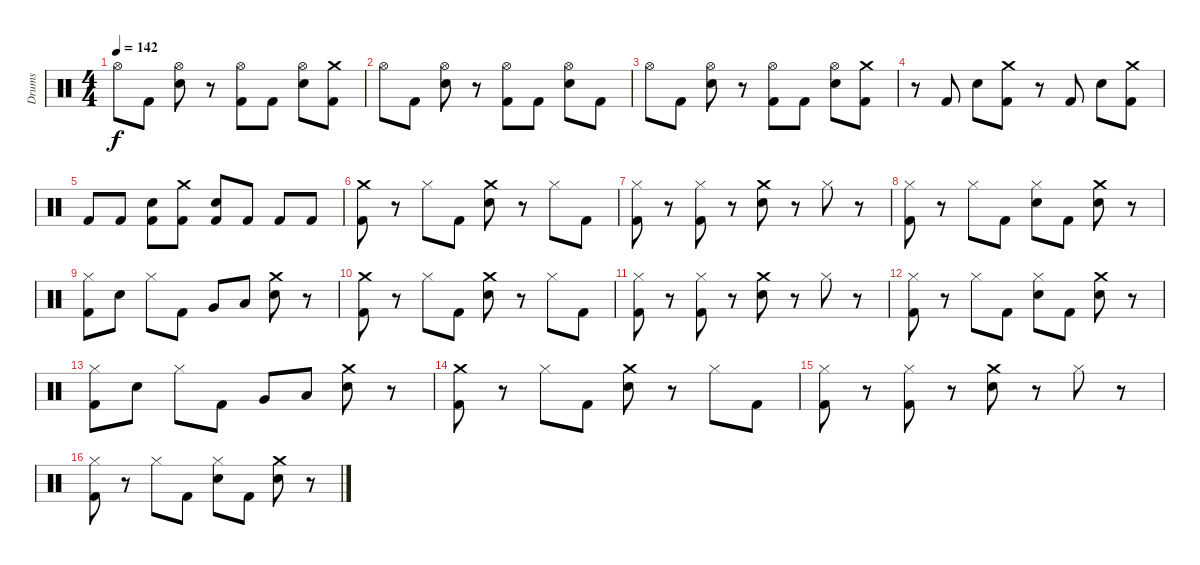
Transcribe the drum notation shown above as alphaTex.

\track ("Drums" "Drums") {instrument percussion}
\staff {score}
\articulation defaults
\ts (4 4)
\tempo 142
\clef neutral
\ks c "Hi-Hat (open)".8{dy f} "Kick (hit) 2".8
("Hi-Hat (open)" "Electric Snare (hit)").8 r.8 ("Hi-Hat (open)" "Kick (hit) 2").8 "Kick (hit) 2".8 ("Hi-Hat (open)" "Electric Snare (hit)").8 ("Crash medium (hit)" "Kick (hit) 2").8 |
"Hi-Hat (open)".8 "Kick (hit) 2".8 ("Hi-Hat (open)" "Electric Snare (hit)").8 r.8 ("Hi-Hat (open)" "Kick (hit) 2").8 "Kick (hit) 2".8 ("Hi-Hat (open)" "Electric Snare (hit)").8 "Kick (hit) 2".8 |
"Hi-Hat (open)".8 "Kick (hit) 2".8 ("Hi-Hat (open)" "Electric Snare (hit)").8 r.8 ("Hi-Hat (open)" "Kick (hit) 2").8 "Kick (hit) 2".8 ("Hi-Hat (open)" "Electric Snare (hit)").8 ("Crash medium (hit)" "Kick (hit) 2").8 |
r.8 "Kick (hit) 2".8 "Electric Snare (hit)".8 ("Crash medium (hit)" "Kick (hit) 2").8 r.8 "Kick (hit) 2".8 "Electric Snare (hit)".8 ("Crash medium (hit)" "Kick (hit) 2").8 |
"Kick (hit) 2".8 "Kick (hit) 2".8 ("Electric Snare (hit)" "Kick (hit) 2").8 ("Crash medium (hit)" "Kick (hit) 2").8 ("Electric Snare (hit)" "Kick (hit) 2").8 "Kick (hit) 2".8 "Kick (hit) 2".8 "Kick (hit) 2".8 |
("Crash medium (hit)" "Kick (hit) 2").8 r.8 "Hi-Hat (closed)".8 "Kick (hit) 2".8 ("Crash medium (hit)" "Electric Snare (hit)").8 r.8 "Hi-Hat (closed)".8 "Kick (hit) 2".8 |
("Hi-Hat (closed)" "Kick (hit) 2").8 r.8 ("Hi-Hat (closed)" "Kick (hit) 2").8 r.8 ("Crash medium (hit)" "Electric Snare (hit)").8 r.8 "Hi-Hat (closed)".8 r.8 |
("Hi-Hat (closed)" "Kick (hit) 2").8 r.8 "Hi-Hat (closed)".8 "Kick (hit) 2".8 ("Hi-Hat (closed)" "Electric Snare (hit)").8 "Kick (hit) 2".8 ("Crash medium (hit)" "Electric Snare (hit)").8 r.8 |
("Hi-Hat (closed)" "Kick (hit) 2").8 "Electric Snare (hit)".8 "Hi-Hat (closed)".8 "Kick (hit) 2".8 "Very Low Tom (hit)".8 "Low Floor Tom (hit)".8 ("Crash medium (hit)" "Electric Snare (hit)").8 r.8 |
("Crash medium (hit)" "Kick (hit) 2").8 r.8 "Hi-Hat (closed)".8 "Kick (hit) 2".8 ("Crash medium (hit)" "Electric Snare (hit)").8 r.8 "Hi-Hat (closed)".8 "Kick (hit) 2".8 |
("Hi-Hat (closed)" "Kick (hit) 2").8 r.8 ("Hi-Hat (closed)" "Kick (hit) 2").8 r.8 ("Crash medium (hit)" "Electric Snare (hit)").8 r.8 "Hi-Hat (closed)".8 r.8 |
("Hi-Hat (closed)" "Kick (hit) 2").8 r.8 "Hi-Hat (closed)".8 "Kick (hit) 2".8 ("Hi-Hat (closed)" "Electric Snare (hit)").8 "Kick (hit) 2".8 ("Crash medium (hit)" "Electric Snare (hit)").8 r.8 |
("Hi-Hat (closed)" "Kick (hit) 2").8 "Electric Snare (hit)".8 "Hi-Hat (closed)".8 "Kick (hit) 2".8 "Very Low Tom (hit)".8 "Low Floor Tom (hit)".8 ("Crash medium (hit)" "Electric Snare (hit)").8 r.8 |
("Crash medium (hit)" "Kick (hit) 2").8 r.8 "Hi-Hat (closed)".8 "Kick (hit) 2".8 ("Crash medium (hit)" "Electric Snare (hit)").8 r.8 "Hi-Hat (closed)".8 "Kick (hit) 2".8 |
("Hi-Hat (closed)" "Kick (hit) 2").8 r.8 ("Hi-Hat (closed)" "Kick (hit) 2").8 r.8 ("Crash medium (hit)" "Electric Snare (hit)").8 r.8 "Hi-Hat (closed)".8 r.8 |
("Hi-Hat (closed)" "Kick (hit) 2").8 r.8 "Hi-Hat (closed)".8 "Kick (hit) 2".8 ("Hi-Hat (closed)" "Electric Snare (hit)").8 "Kick (hit) 2".8 ("Crash medium (hit)" "Electric Snare (hit)").8 r.8
